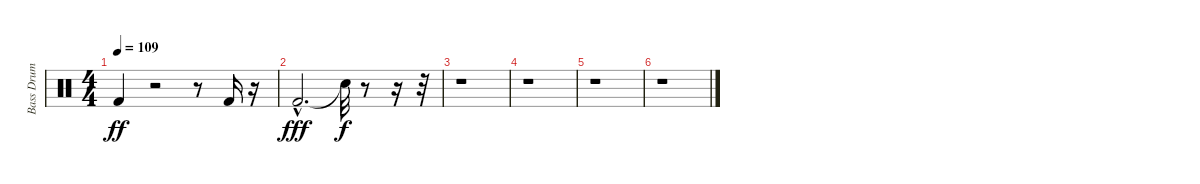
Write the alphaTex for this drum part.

\track ("Bass Drum" "Bass Drum") {instrument percussion}
\staff {score}
\articulation defaults
\ts (4 4)
\tempo 109
\clef neutral
\ks c "Kick (hit) 2".4{dy ff}
r.2 r.8 "Kick (hit) 2".16 r.16 |
"Kick (hit) 2"{hac}.2{d dy fff} "Snare (hit)"{t}.32{dy f} r.8 r.16 r.32 |
r.1 |
r.1 |
r.1 |
r.1
